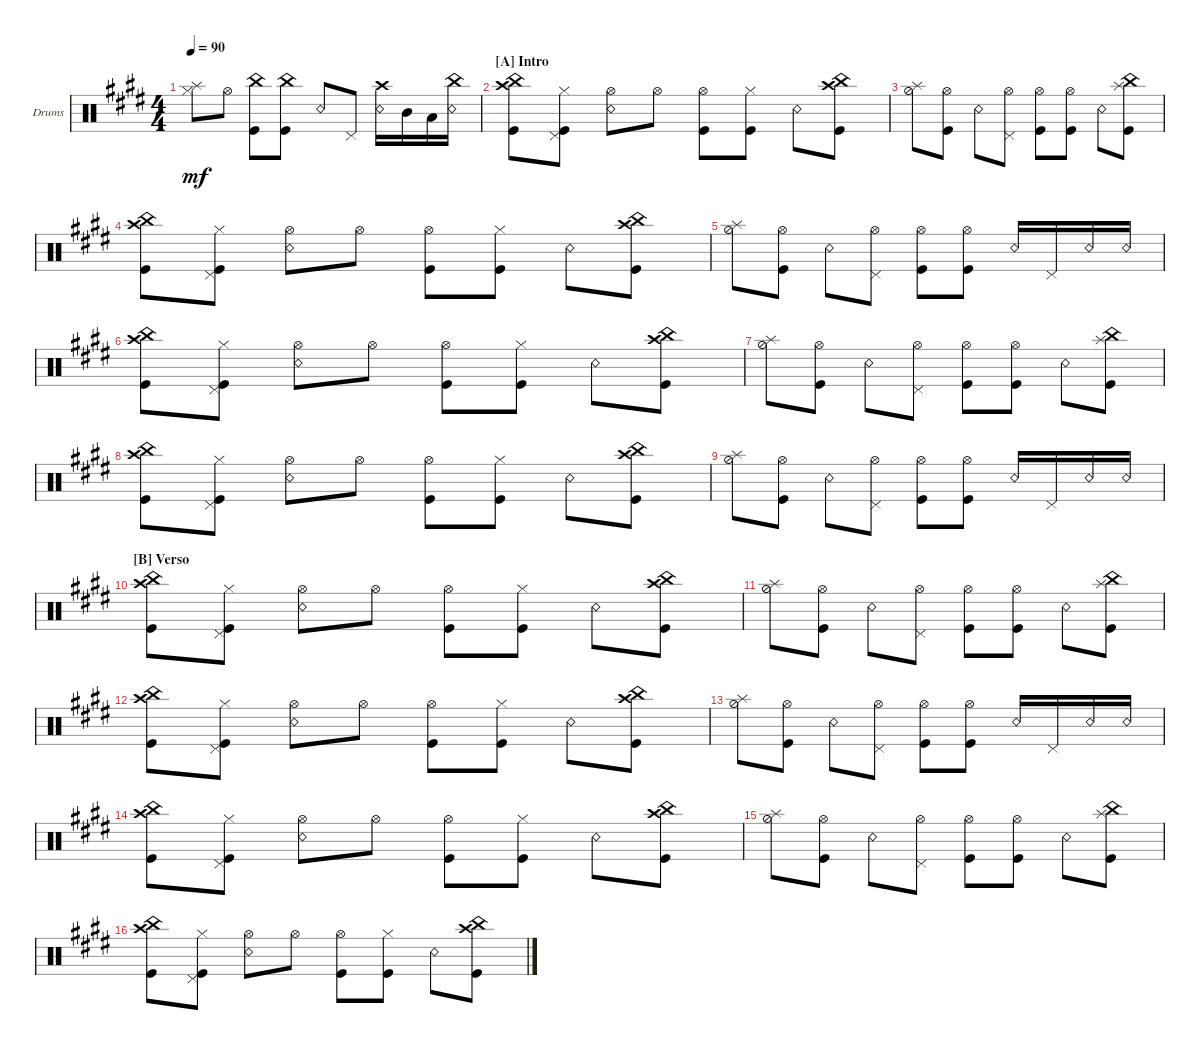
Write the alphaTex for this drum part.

\defaultSystemsLayout 4
\bracketExtendMode groupsimilarinstruments
\firstSystemTrackNameOrientation horizontal
\otherSystemsTrackNameOrientation horizontal
\track ("Drum" "Drums") {multiBarRest instrument percussion}
\staff {score}
\articulation defaults
\ts (4 4)
\tempo 90
\clef neutral
\ks e
("Hi-Hat (closed)" "Splash (hit)").8{dy mf} "Hi-Hat (open)".8 ("Kick (hit)" "China (hit)").8 ("Kick (hit)" "China (hit)").8 "Snare (rim shot)".8 "Pedal Hi-Hat (hit)".8 ("Snare (rim shot)" "Crash high (hit)").16 "Mid Tom (hit)".16 "Low Tom (hit)".16 ("Snare (rim shot)" "China (hit)").16 |
\section ("A" "Intro")
("Kick (hit)" "China (hit)" "Crash high (hit)").8 ("Kick (hit)" "Pedal Hi-Hat (hit)" "Hi-Hat (closed)").8 ("Snare (rim shot)" "Hi-Hat (open)").8 "Hi-Hat (open)".8 ("Kick (hit)" "Hi-Hat (open)").8 ("Kick (hit)" "Hi-Hat (closed)").8 "Snare (rim shot)".8 ("Crash high (hit)" "Kick (hit)" "China (hit)").8 |
("Hi-Hat (half)" "Splash (hit)").8 ("Kick (hit)" "Hi-Hat (open)").8 "Snare (rim shot)".8 ("Pedal Hi-Hat (hit)" "Hi-Hat (open)").8 ("Kick (hit)" "Hi-Hat (open)").8 ("Kick (hit)" "Hi-Hat (open)").8 "Snare (rim shot)".8 ("China (hit)" "Kick (hit)" "Splash (hit)").8 |
("Kick (hit)" "China (hit)" "Crash high (hit)").8 ("Kick (hit)" "Pedal Hi-Hat (hit)" "Hi-Hat (closed)").8 ("Snare (rim shot)" "Hi-Hat (open)").8 "Hi-Hat (open)".8 ("Kick (hit)" "Hi-Hat (open)").8 ("Kick (hit)" "Hi-Hat (closed)").8 "Snare (rim shot)".8 ("Crash high (hit)" "Kick (hit)" "China (hit)").8 |
("Hi-Hat (half)" "Splash (hit)").8 ("Kick (hit)" "Hi-Hat (open)").8 "Snare (rim shot)".8 ("Pedal Hi-Hat (hit)" "Hi-Hat (open)").8 ("Kick (hit)" "Hi-Hat (open)").8 ("Kick (hit)" "Hi-Hat (open)").8 "Snare (rim shot)".16 "Pedal Hi-Hat (hit)".16 "Snare (rim shot)".16 "Snare (rim shot)".16 |
("Kick (hit)" "China (hit)" "Crash high (hit)").8 ("Kick (hit)" "Pedal Hi-Hat (hit)" "Hi-Hat (closed)").8 ("Snare (rim shot)" "Hi-Hat (open)").8 "Hi-Hat (open)".8 ("Kick (hit)" "Hi-Hat (open)").8 ("Kick (hit)" "Hi-Hat (closed)").8 "Snare (rim shot)".8 ("Crash high (hit)" "Kick (hit)" "China (hit)").8 |
("Hi-Hat (half)" "Splash (hit)").8 ("Kick (hit)" "Hi-Hat (open)").8 "Snare (rim shot)".8 ("Pedal Hi-Hat (hit)" "Hi-Hat (open)").8 ("Kick (hit)" "Hi-Hat (open)").8 ("Kick (hit)" "Hi-Hat (open)").8 "Snare (rim shot)".8 ("China (hit)" "Kick (hit)" "Splash (hit)").8 |
("Kick (hit)" "China (hit)" "Crash high (hit)").8 ("Kick (hit)" "Pedal Hi-Hat (hit)" "Hi-Hat (closed)").8 ("Snare (rim shot)" "Hi-Hat (open)").8 "Hi-Hat (open)".8 ("Kick (hit)" "Hi-Hat (open)").8 ("Kick (hit)" "Hi-Hat (closed)").8 "Snare (rim shot)".8 ("Crash high (hit)" "Kick (hit)" "China (hit)").8 |
("Hi-Hat (half)" "Splash (hit)").8 ("Kick (hit)" "Hi-Hat (open)").8 "Snare (rim shot)".8 ("Pedal Hi-Hat (hit)" "Hi-Hat (open)").8 ("Kick (hit)" "Hi-Hat (open)").8 ("Kick (hit)" "Hi-Hat (open)").8 "Snare (rim shot)".16 "Pedal Hi-Hat (hit)".16 "Snare (rim shot)".16 "Snare (rim shot)".16 |
\section ("B" "Verso")
("Kick (hit)" "China (hit)" "Crash high (hit)").8 ("Kick (hit)" "Pedal Hi-Hat (hit)" "Hi-Hat (closed)").8 ("Snare (rim shot)" "Hi-Hat (open)").8 "Hi-Hat (open)".8 ("Kick (hit)" "Hi-Hat (open)").8 ("Kick (hit)" "Hi-Hat (closed)").8 "Snare (rim shot)".8 ("Crash high (hit)" "Kick (hit)" "China (hit)").8 |
("Hi-Hat (half)" "Splash (hit)").8 ("Kick (hit)" "Hi-Hat (open)").8 "Snare (rim shot)".8 ("Pedal Hi-Hat (hit)" "Hi-Hat (open)").8 ("Kick (hit)" "Hi-Hat (open)").8 ("Kick (hit)" "Hi-Hat (open)").8 "Snare (rim shot)".8 ("China (hit)" "Kick (hit)" "Splash (hit)").8 |
("Kick (hit)" "China (hit)" "Crash high (hit)").8 ("Kick (hit)" "Pedal Hi-Hat (hit)" "Hi-Hat (closed)").8 ("Snare (rim shot)" "Hi-Hat (open)").8 "Hi-Hat (open)".8 ("Kick (hit)" "Hi-Hat (open)").8 ("Kick (hit)" "Hi-Hat (closed)").8 "Snare (rim shot)".8 ("Crash high (hit)" "Kick (hit)" "China (hit)").8 |
("Hi-Hat (half)" "Splash (hit)").8 ("Kick (hit)" "Hi-Hat (open)").8 "Snare (rim shot)".8 ("Pedal Hi-Hat (hit)" "Hi-Hat (open)").8 ("Kick (hit)" "Hi-Hat (open)").8 ("Kick (hit)" "Hi-Hat (open)").8 "Snare (rim shot)".16 "Pedal Hi-Hat (hit)".16 "Snare (rim shot)".16 "Snare (rim shot)".16 |
("Kick (hit)" "China (hit)" "Crash high (hit)").8 ("Kick (hit)" "Pedal Hi-Hat (hit)" "Hi-Hat (closed)").8 ("Snare (rim shot)" "Hi-Hat (open)").8 "Hi-Hat (open)".8 ("Kick (hit)" "Hi-Hat (open)").8 ("Kick (hit)" "Hi-Hat (closed)").8 "Snare (rim shot)".8 ("Crash high (hit)" "Kick (hit)" "China (hit)").8 |
("Hi-Hat (half)" "Splash (hit)").8 ("Kick (hit)" "Hi-Hat (open)").8 "Snare (rim shot)".8 ("Pedal Hi-Hat (hit)" "Hi-Hat (open)").8 ("Kick (hit)" "Hi-Hat (open)").8 ("Kick (hit)" "Hi-Hat (open)").8 "Snare (rim shot)".8 ("China (hit)" "Kick (hit)" "Splash (hit)").8 |
("Kick (hit)" "China (hit)" "Crash high (hit)").8 ("Kick (hit)" "Pedal Hi-Hat (hit)" "Hi-Hat (closed)").8 ("Snare (rim shot)" "Hi-Hat (open)").8 "Hi-Hat (open)".8 ("Kick (hit)" "Hi-Hat (open)").8 ("Kick (hit)" "Hi-Hat (closed)").8 "Snare (rim shot)".8 ("Crash high (hit)" "Kick (hit)" "China (hit)").8
